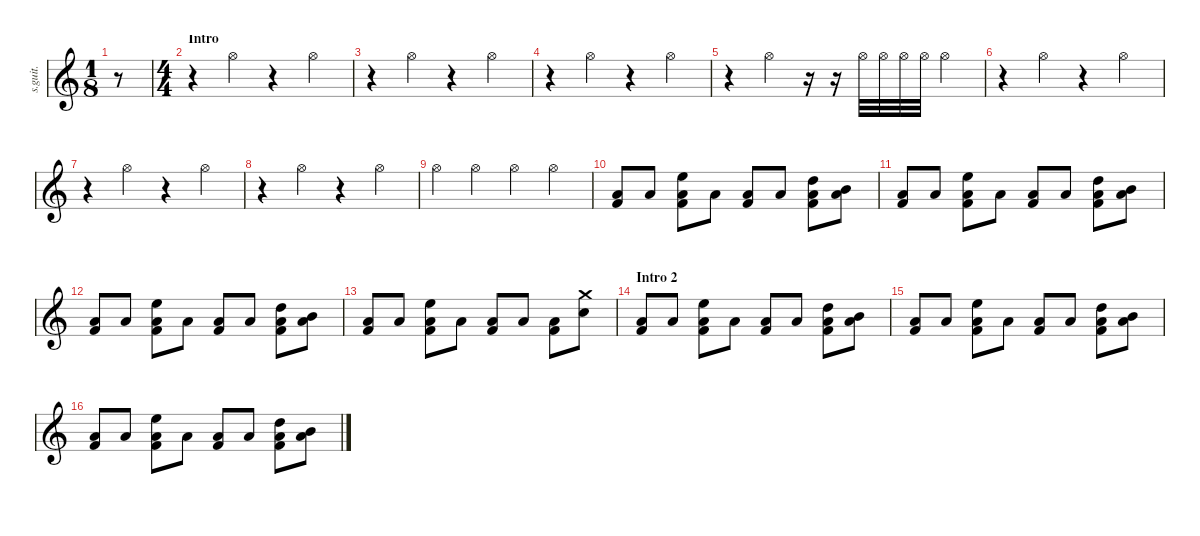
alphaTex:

\defaultSystemsLayout 4
\hideDynamics
\bracketExtendMode nobrackets
\track ("Lars Ulrich" "s.guit.") {instrument percussion}
\staff {score}
\articulation defaults
\ts (1 8)
\beaming (8 2 2 2 2)
\tempo (124 hide)
\clef g2
\ks c
r.8{dy mp} |
\ts (4 4)
\beaming (8 2 2 2 2)
\section ("" "Intro")
r.4 "Hi-Hat (open)".4{lyrics (0 "") lyrics (1 "") lyrics (2 "") lyrics (3 "") lyrics (4 "")} r.4 "Hi-Hat (open)".4{lyrics (0 "") lyrics (1 "") lyrics (2 "") lyrics (3 "") lyrics (4 "")} |
r.4 "Hi-Hat (open)".4{lyrics (0 "") lyrics (1 "") lyrics (2 "") lyrics (3 "") lyrics (4 "")} r.4 "Hi-Hat (open)".4{lyrics (0 "") lyrics (1 "") lyrics (2 "") lyrics (3 "") lyrics (4 "")} |
r.4 "Hi-Hat (open)".4{lyrics (0 "") lyrics (1 "") lyrics (2 "") lyrics (3 "") lyrics (4 "")} r.4 "Hi-Hat (open)".4{lyrics (0 "") lyrics (1 "") lyrics (2 "") lyrics (3 "") lyrics (4 "")} |
r.4 "Hi-Hat (open)".4{lyrics (0 "") lyrics (1 "") lyrics (2 "") lyrics (3 "") lyrics (4 "")} r.16 r.16 "Hi-Hat (open)".32{lyrics (0 "") lyrics (1 "") lyrics (2 "") lyrics (3 "") lyrics (4 "")} "Hi-Hat (open)".32{lyrics (0 "") lyrics (1 "") lyrics (2 "") lyrics (3 "") lyrics (4 "")} "Hi-Hat (open)".32{lyrics (0 "") lyrics (1 "") lyrics (2 "") lyrics (3 "") lyrics (4 "")} "Hi-Hat (open)".32{lyrics (0 "") lyrics (1 "") lyrics (2 "") lyrics (3 "") lyrics (4 "")} "Hi-Hat (open)".4{lyrics (0 "") lyrics (1 "") lyrics (2 "") lyrics (3 "") lyrics (4 "")} |
r.4 "Hi-Hat (open)".4{lyrics (0 "") lyrics (1 "") lyrics (2 "") lyrics (3 "") lyrics (4 "")} r.4 "Hi-Hat (open)".4{lyrics (0 "") lyrics (1 "") lyrics (2 "") lyrics (3 "") lyrics (4 "")} |
r.4 "Hi-Hat (open)".4{lyrics (0 "") lyrics (1 "") lyrics (2 "") lyrics (3 "") lyrics (4 "")} r.4 "Hi-Hat (open)".4{lyrics (0 "") lyrics (1 "") lyrics (2 "") lyrics (3 "") lyrics (4 "")} |
r.4 "Hi-Hat (open)".4{lyrics (0 "") lyrics (1 "") lyrics (2 "") lyrics (3 "") lyrics (4 "")} r.4 "Hi-Hat (open)".4{lyrics (0 "") lyrics (1 "") lyrics (2 "") lyrics (3 "") lyrics (4 "")} |
"Hi-Hat (open)".4{lyrics (0 "") lyrics (1 "") lyrics (2 "") lyrics (3 "") lyrics (4 "")} "Hi-Hat (open)".4{lyrics (0 "") lyrics (1 "") lyrics (2 "") lyrics (3 "") lyrics (4 "")} "Hi-Hat (open)".4{lyrics (0 "") lyrics (1 "") lyrics (2 "") lyrics (3 "") lyrics (4 "")} "Hi-Hat (open)".4{lyrics (0 "") lyrics (1 "") lyrics (2 "") lyrics (3 "") lyrics (4 "")} |
("Low Floor Tom (hit)" "Kick (hit) 2").8{lyrics (0 "") lyrics (1 "") lyrics (2 "") lyrics (3 "") lyrics (4 "") dy f} "Low Floor Tom (hit)".8{lyrics (0 "") lyrics (1 "") lyrics (2 "") lyrics (3 "") lyrics (4 "") dy mf} ("Low Floor Tom (hit)" "Kick (hit) 2" "High Floor Tom (hit)").8{lyrics (0 "") lyrics (1 "") lyrics (2 "") lyrics (3 "") lyrics (4 "") dy f} "Low Floor Tom (hit)".8{lyrics (0 "") lyrics (1 "") lyrics (2 "") lyrics (3 "") lyrics (4 "") dy mf} ("Low Floor Tom (hit)" "Kick (hit) 2").8{lyrics (0 "") lyrics (1 "") lyrics (2 "") lyrics (3 "") lyrics (4 "") dy f} "Low Floor Tom (hit)".8{lyrics (0 "") lyrics (1 "") lyrics (2 "") lyrics (3 "") lyrics (4 "") dy mf} ("Low Floor Tom (hit)" "Kick (hit) 2" "High Tom (hit)").8{lyrics (0 "") lyrics (1 "") lyrics (2 "") lyrics (3 "") lyrics (4 "") dy f} ("Low Floor Tom (hit)" "Mid Tom (hit)").8{lyrics (0 "") lyrics (1 "") lyrics (2 "") lyrics (3 "") lyrics (4 "") dy ff} |
("Low Floor Tom (hit)" "Kick (hit) 2").8{lyrics (0 "") lyrics (1 "") lyrics (2 "") lyrics (3 "") lyrics (4 "") dy f} "Low Floor Tom (hit)".8{lyrics (0 "") lyrics (1 "") lyrics (2 "") lyrics (3 "") lyrics (4 "") dy mf} ("Low Floor Tom (hit)" "Kick (hit) 2" "High Floor Tom (hit)").8{lyrics (0 "") lyrics (1 "") lyrics (2 "") lyrics (3 "") lyrics (4 "") dy f} "Low Floor Tom (hit)".8{lyrics (0 "") lyrics (1 "") lyrics (2 "") lyrics (3 "") lyrics (4 "") dy mf} ("Low Floor Tom (hit)" "Kick (hit) 2").8{lyrics (0 "") lyrics (1 "") lyrics (2 "") lyrics (3 "") lyrics (4 "") dy f} "Low Floor Tom (hit)".8{lyrics (0 "") lyrics (1 "") lyrics (2 "") lyrics (3 "") lyrics (4 "") dy mf} ("Low Floor Tom (hit)" "Kick (hit) 2" "High Tom (hit)").8{lyrics (0 "") lyrics (1 "") lyrics (2 "") lyrics (3 "") lyrics (4 "") dy f} ("Low Floor Tom (hit)" "Mid Tom (hit)").8{lyrics (0 "") lyrics (1 "") lyrics (2 "") lyrics (3 "") lyrics (4 "") dy ff} |
("Low Floor Tom (hit)" "Kick (hit) 2").8{lyrics (0 "") lyrics (1 "") lyrics (2 "") lyrics (3 "") lyrics (4 "") dy f} "Low Floor Tom (hit)".8{lyrics (0 "") lyrics (1 "") lyrics (2 "") lyrics (3 "") lyrics (4 "") dy mf} ("Low Floor Tom (hit)" "High Floor Tom (hit)" "Kick (hit) 2").8{lyrics (0 "") lyrics (1 "") lyrics (2 "") lyrics (3 "") lyrics (4 "")} "Low Floor Tom (hit)".8{lyrics (0 "") lyrics (1 "") lyrics (2 "") lyrics (3 "") lyrics (4 "")} ("Low Floor Tom (hit)" "Kick (hit) 2").8{lyrics (0 "") lyrics (1 "") lyrics (2 "") lyrics (3 "") lyrics (4 "") dy f} "Low Floor Tom (hit)".8{lyrics (0 "") lyrics (1 "") lyrics (2 "") lyrics (3 "") lyrics (4 "") dy mf} ("Low Floor Tom (hit)" "Kick (hit) 2" "High Tom (hit)").8{lyrics (0 "") lyrics (1 "") lyrics (2 "") lyrics (3 "") lyrics (4 "") dy f} ("Low Floor Tom (hit)" "Mid Tom (hit)").8{lyrics (0 "") lyrics (1 "") lyrics (2 "") lyrics (3 "") lyrics (4 "") dy ff} |
("Low Floor Tom (hit)" "Kick (hit) 2").8{lyrics (0 "") lyrics (1 "") lyrics (2 "") lyrics (3 "") lyrics (4 "") dy f} "Low Floor Tom (hit)".8{lyrics (0 "") lyrics (1 "") lyrics (2 "") lyrics (3 "") lyrics (4 "") dy mf} ("Low Floor Tom (hit)" "Kick (hit) 2" "High Floor Tom (hit)").8{lyrics (0 "") lyrics (1 "") lyrics (2 "") lyrics (3 "") lyrics (4 "") dy f} "Low Floor Tom (hit)".8{lyrics (0 "") lyrics (1 "") lyrics (2 "") lyrics (3 "") lyrics (4 "") dy mf} ("Low Floor Tom (hit)" "Kick (hit) 2").8{lyrics (0 "") lyrics (1 "") lyrics (2 "") lyrics (3 "") lyrics (4 "") dy f} "Low Floor Tom (hit)".8{lyrics (0 "") lyrics (1 "") lyrics (2 "") lyrics (3 "") lyrics (4 "") dy mf} ("Low Floor Tom (hit)" "Kick (hit) 2").8{lyrics (0 "") lyrics (1 "") lyrics (2 "") lyrics (3 "") lyrics (4 "") dy f} ("Snare (hit) 2" "Crash medium (hit)").8{lyrics (0 "") lyrics (1 "") lyrics (2 "") lyrics (3 "") lyrics (4 "")} |
\section ("" "Intro 2")
("Low Floor Tom (hit)" "Kick (hit) 2").8{lyrics (0 "") lyrics (1 "") lyrics (2 "") lyrics (3 "") lyrics (4 "")} "Low Floor Tom (hit)".8{lyrics (0 "") lyrics (1 "") lyrics (2 "") lyrics (3 "") lyrics (4 "") dy mf} ("Low Floor Tom (hit)" "Kick (hit) 2" "High Floor Tom (hit)").8{lyrics (0 "") lyrics (1 "") lyrics (2 "") lyrics (3 "") lyrics (4 "") dy f} "Low Floor Tom (hit)".8{lyrics (0 "") lyrics (1 "") lyrics (2 "") lyrics (3 "") lyrics (4 "") dy mf} ("Low Floor Tom (hit)" "Kick (hit) 2").8{lyrics (0 "") lyrics (1 "") lyrics (2 "") lyrics (3 "") lyrics (4 "") dy f} "Low Floor Tom (hit)".8{lyrics (0 "") lyrics (1 "") lyrics (2 "") lyrics (3 "") lyrics (4 "") dy mf} ("Low Floor Tom (hit)" "Kick (hit) 2" "High Tom (hit)").8{lyrics (0 "") lyrics (1 "") lyrics (2 "") lyrics (3 "") lyrics (4 "") dy f} ("Low Floor Tom (hit)" "Mid Tom (hit)").8{lyrics (0 "") lyrics (1 "") lyrics (2 "") lyrics (3 "") lyrics (4 "") dy ff} |
("Low Floor Tom (hit)" "Kick (hit) 2").8{lyrics (0 "") lyrics (1 "") lyrics (2 "") lyrics (3 "") lyrics (4 "") dy f} "Low Floor Tom (hit)".8{lyrics (0 "") lyrics (1 "") lyrics (2 "") lyrics (3 "") lyrics (4 "") dy mf} ("Low Floor Tom (hit)" "Kick (hit) 2" "High Floor Tom (hit)").8{lyrics (0 "") lyrics (1 "") lyrics (2 "") lyrics (3 "") lyrics (4 "") dy f} "Low Floor Tom (hit)".8{lyrics (0 "") lyrics (1 "") lyrics (2 "") lyrics (3 "") lyrics (4 "") dy mf} ("Low Floor Tom (hit)" "Kick (hit) 2").8{lyrics (0 "") lyrics (1 "") lyrics (2 "") lyrics (3 "") lyrics (4 "") dy f} "Low Floor Tom (hit)".8{lyrics (0 "") lyrics (1 "") lyrics (2 "") lyrics (3 "") lyrics (4 "") dy mf} ("Low Floor Tom (hit)" "Kick (hit) 2" "High Tom (hit)").8{lyrics (0 "") lyrics (1 "") lyrics (2 "") lyrics (3 "") lyrics (4 "") dy f} ("Low Floor Tom (hit)" "Mid Tom (hit)").8{lyrics (0 "") lyrics (1 "") lyrics (2 "") lyrics (3 "") lyrics (4 "") dy ff} |
("Low Floor Tom (hit)" "Kick (hit) 2").8{lyrics (0 "") lyrics (1 "") lyrics (2 "") lyrics (3 "") lyrics (4 "") dy f} "Low Floor Tom (hit)".8{lyrics (0 "") lyrics (1 "") lyrics (2 "") lyrics (3 "") lyrics (4 "") dy mf} ("Low Floor Tom (hit)" "Kick (hit) 2" "High Floor Tom (hit)").8{lyrics (0 "") lyrics (1 "") lyrics (2 "") lyrics (3 "") lyrics (4 "") dy f} "Low Floor Tom (hit)".8{lyrics (0 "") lyrics (1 "") lyrics (2 "") lyrics (3 "") lyrics (4 "") dy mf} ("Low Floor Tom (hit)" "Kick (hit) 2").8{lyrics (0 "") lyrics (1 "") lyrics (2 "") lyrics (3 "") lyrics (4 "") dy f} "Low Floor Tom (hit)".8{lyrics (0 "") lyrics (1 "") lyrics (2 "") lyrics (3 "") lyrics (4 "") dy mf} ("Low Floor Tom (hit)" "Kick (hit) 2" "High Tom (hit)").8{lyrics (0 "") lyrics (1 "") lyrics (2 "") lyrics (3 "") lyrics (4 "") dy f} ("Low Floor Tom (hit)" "Mid Tom (hit)").8{lyrics (0 "") lyrics (1 "") lyrics (2 "") lyrics (3 "") lyrics (4 "")}
